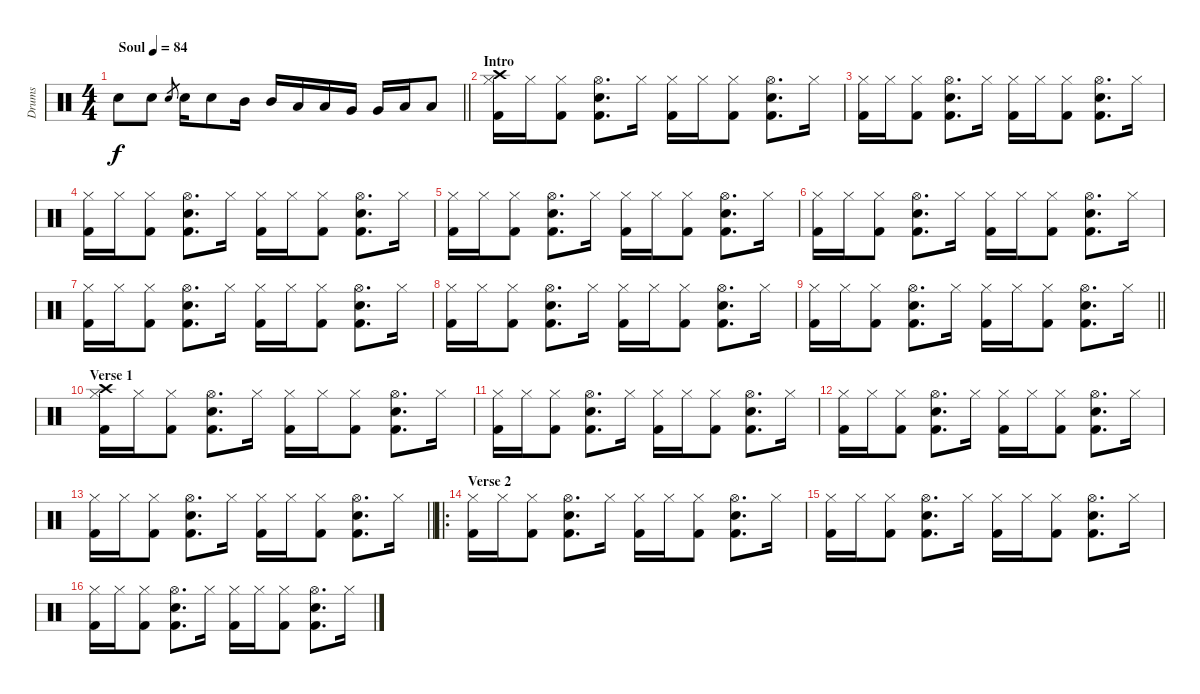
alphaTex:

\track ("Drums" "Drums") {instrument percussion}
\staff {score}
\articulation defaults
\ts (4 4)
\tempo (84 "Soul")
\clef neutral
\barLineRight lightlight
\ks c "Snare (hit) 2".8{dy f} "Snare (hit) 2".8 "Snare (hit) 2".8{gr} "Snare (hit) 2".16 "Snare (hit) 2".8 "Mid Tom (hit)".16 "Mid Tom (hit)".16 "Low Tom (hit)".16 "Low Tom (hit)".16 "Very Low Tom (hit)".16 "Very Low Tom (hit)".16 "Low Floor Tom (hit)".16 "Low Floor Tom (hit)".8
|
\section ("" "Intro")
("Kick (hit) 2" "Hi-Hat (closed)" "Crash high (hit)").16 "Hi-Hat (closed)".16 ("Kick (hit) 2" "Hi-Hat (closed)").8 ("Kick (hit) 2" "Hi-Hat (open)" "Snare (hit) 2").8{d} "Hi-Hat (closed)".16 ("Kick (hit) 2" "Hi-Hat (closed)").16 "Hi-Hat (closed)".16 ("Kick (hit) 2" "Hi-Hat (closed)").8 ("Kick (hit) 2" "Hi-Hat (open)" "Snare (hit) 2").8{d} "Hi-Hat (closed)".16 |
("Kick (hit) 2" "Hi-Hat (closed)").16 "Hi-Hat (closed)".16 ("Kick (hit) 2" "Hi-Hat (closed)").8 ("Kick (hit) 2" "Hi-Hat (open)" "Snare (hit) 2").8{d} "Hi-Hat (closed)".16 ("Kick (hit) 2" "Hi-Hat (closed)").16 "Hi-Hat (closed)".16 ("Kick (hit) 2" "Hi-Hat (closed)").8 ("Kick (hit) 2" "Hi-Hat (open)" "Snare (hit) 2").8{d} "Hi-Hat (closed)".16 |
("Kick (hit) 2" "Hi-Hat (closed)").16 "Hi-Hat (closed)".16 ("Kick (hit) 2" "Hi-Hat (closed)").8 ("Kick (hit) 2" "Hi-Hat (open)" "Snare (hit) 2").8{d} "Hi-Hat (closed)".16 ("Kick (hit) 2" "Hi-Hat (closed)").16 "Hi-Hat (closed)".16 ("Kick (hit) 2" "Hi-Hat (closed)").8 ("Kick (hit) 2" "Hi-Hat (open)" "Snare (hit) 2").8{d} "Hi-Hat (closed)".16 |
("Kick (hit) 2" "Hi-Hat (closed)").16 "Hi-Hat (closed)".16 ("Kick (hit) 2" "Hi-Hat (closed)").8 ("Kick (hit) 2" "Hi-Hat (open)" "Snare (hit) 2").8{d} "Hi-Hat (closed)".16 ("Kick (hit) 2" "Hi-Hat (closed)").16 "Hi-Hat (closed)".16 ("Kick (hit) 2" "Hi-Hat (closed)").8 ("Kick (hit) 2" "Hi-Hat (open)" "Snare (hit) 2").8{d} "Hi-Hat (closed)".16 |
("Kick (hit) 2" "Hi-Hat (closed)").16 "Hi-Hat (closed)".16 ("Kick (hit) 2" "Hi-Hat (closed)").8 ("Kick (hit) 2" "Hi-Hat (open)" "Snare (hit) 2").8{d} "Hi-Hat (closed)".16 ("Kick (hit) 2" "Hi-Hat (closed)").16 "Hi-Hat (closed)".16 ("Kick (hit) 2" "Hi-Hat (closed)").8 ("Kick (hit) 2" "Hi-Hat (open)" "Snare (hit) 2").8{d} "Hi-Hat (closed)".16 |
("Kick (hit) 2" "Hi-Hat (closed)").16 "Hi-Hat (closed)".16 ("Kick (hit) 2" "Hi-Hat (closed)").8 ("Kick (hit) 2" "Hi-Hat (open)" "Snare (hit) 2").8{d} "Hi-Hat (closed)".16 ("Kick (hit) 2" "Hi-Hat (closed)").16 "Hi-Hat (closed)".16 ("Kick (hit) 2" "Hi-Hat (closed)").8 ("Kick (hit) 2" "Hi-Hat (open)" "Snare (hit) 2").8{d} "Hi-Hat (closed)".16 |
("Kick (hit) 2" "Hi-Hat (closed)").16 "Hi-Hat (closed)".16 ("Kick (hit) 2" "Hi-Hat (closed)").8 ("Kick (hit) 2" "Hi-Hat (open)" "Snare (hit) 2").8{d} "Hi-Hat (closed)".16 ("Kick (hit) 2" "Hi-Hat (closed)").16 "Hi-Hat (closed)".16 ("Kick (hit) 2" "Hi-Hat (closed)").8 ("Kick (hit) 2" "Hi-Hat (open)" "Snare (hit) 2").8{d} "Hi-Hat (closed)".16 |
\barLineRight lightlight
("Kick (hit) 2" "Hi-Hat (closed)").16 "Hi-Hat (closed)".16 ("Kick (hit) 2" "Hi-Hat (closed)").8 ("Kick (hit) 2" "Hi-Hat (open)" "Snare (hit) 2").8{d} "Hi-Hat (closed)".16 ("Kick (hit) 2" "Hi-Hat (closed)").16 "Hi-Hat (closed)".16 ("Kick (hit) 2" "Hi-Hat (closed)").8 ("Kick (hit) 2" "Hi-Hat (open)" "Snare (hit) 2").8{d} "Hi-Hat (closed)".16 |
\section ("" "Verse 1")
("Kick (hit) 2" "Hi-Hat (closed)" "Crash high (hit)").16 "Hi-Hat (closed)".16 ("Kick (hit) 2" "Hi-Hat (closed)").8 ("Kick (hit) 2" "Hi-Hat (open)" "Snare (hit) 2").8{d} "Hi-Hat (closed)".16 ("Kick (hit) 2" "Hi-Hat (closed)").16 "Hi-Hat (closed)".16 ("Kick (hit) 2" "Hi-Hat (closed)").8 ("Kick (hit) 2" "Hi-Hat (open)" "Snare (hit) 2").8{d} "Hi-Hat (closed)".16 |
("Kick (hit) 2" "Hi-Hat (closed)").16 "Hi-Hat (closed)".16 ("Kick (hit) 2" "Hi-Hat (closed)").8 ("Kick (hit) 2" "Hi-Hat (open)" "Snare (hit) 2").8{d} "Hi-Hat (closed)".16 ("Kick (hit) 2" "Hi-Hat (closed)").16 "Hi-Hat (closed)".16 ("Kick (hit) 2" "Hi-Hat (closed)").8 ("Kick (hit) 2" "Hi-Hat (open)" "Snare (hit) 2").8{d} "Hi-Hat (closed)".16 |
("Kick (hit) 2" "Hi-Hat (closed)").16 "Hi-Hat (closed)".16 ("Kick (hit) 2" "Hi-Hat (closed)").8 ("Kick (hit) 2" "Hi-Hat (open)" "Snare (hit) 2").8{d} "Hi-Hat (closed)".16 ("Kick (hit) 2" "Hi-Hat (closed)").16 "Hi-Hat (closed)".16 ("Kick (hit) 2" "Hi-Hat (closed)").8 ("Kick (hit) 2" "Hi-Hat (open)" "Snare (hit) 2").8{d} "Hi-Hat (closed)".16 |
\barLineRight lightlight
("Kick (hit) 2" "Hi-Hat (closed)").16 "Hi-Hat (closed)".16 ("Kick (hit) 2" "Hi-Hat (closed)").8 ("Kick (hit) 2" "Hi-Hat (open)" "Snare (hit) 2").8{d} "Hi-Hat (closed)".16 ("Kick (hit) 2" "Hi-Hat (closed)").16 "Hi-Hat (closed)".16 ("Kick (hit) 2" "Hi-Hat (closed)").8 ("Kick (hit) 2" "Hi-Hat (open)" "Snare (hit) 2").8{d} "Hi-Hat (closed)".16 |
\ro
\section ("" "Verse 2")
("Kick (hit) 2" "Hi-Hat (closed)").16 "Hi-Hat (closed)".16 ("Kick (hit) 2" "Hi-Hat (closed)").8 ("Kick (hit) 2" "Hi-Hat (open)" "Snare (hit) 2").8{d} "Hi-Hat (closed)".16 ("Kick (hit) 2" "Hi-Hat (closed)").16 "Hi-Hat (closed)".16 ("Kick (hit) 2" "Hi-Hat (closed)").8 ("Kick (hit) 2" "Hi-Hat (open)" "Snare (hit) 2").8{d} "Hi-Hat (closed)".16 |
("Kick (hit) 2" "Hi-Hat (closed)").16 "Hi-Hat (closed)".16 ("Kick (hit) 2" "Hi-Hat (closed)").8 ("Kick (hit) 2" "Hi-Hat (open)" "Snare (hit) 2").8{d} "Hi-Hat (closed)".16 ("Kick (hit) 2" "Hi-Hat (closed)").16 "Hi-Hat (closed)".16 ("Kick (hit) 2" "Hi-Hat (closed)").8 ("Kick (hit) 2" "Hi-Hat (open)" "Snare (hit) 2").8{d} "Hi-Hat (closed)".16 |
("Kick (hit) 2" "Hi-Hat (closed)").16 "Hi-Hat (closed)".16 ("Kick (hit) 2" "Hi-Hat (closed)").8 ("Kick (hit) 2" "Hi-Hat (open)" "Snare (hit) 2").8{d} "Hi-Hat (closed)".16 ("Kick (hit) 2" "Hi-Hat (closed)").16 "Hi-Hat (closed)".16 ("Kick (hit) 2" "Hi-Hat (closed)").8 ("Kick (hit) 2" "Hi-Hat (open)" "Snare (hit) 2").8{d} "Hi-Hat (closed)".16
